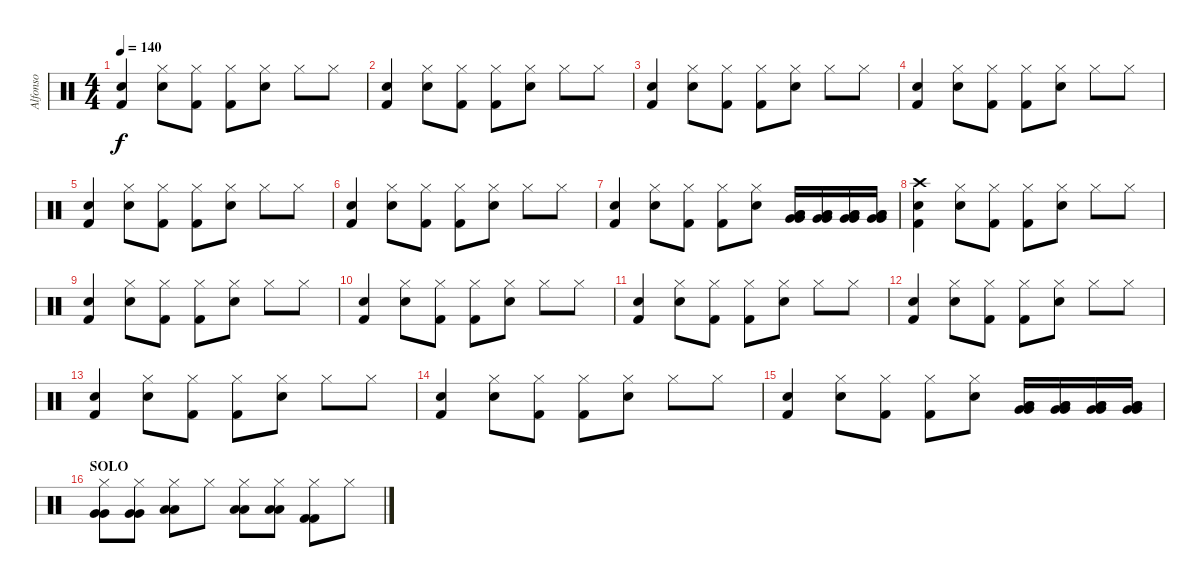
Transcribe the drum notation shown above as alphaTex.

\track ("Alfonso" "Alfonso") {instrument percussion}
\staff {score}
\articulation defaults
\ts (4 4)
\tempo 140
\clef neutral
\ks c
("Kick (hit) 2" "Electric Snare (hit)").4{dy f} ("Hi-Hat (closed)" "Electric Snare (hit)").8 ("Hi-Hat (closed)" "Kick (hit) 2").8 ("Hi-Hat (closed)" "Kick (hit) 2").8 ("Hi-Hat (closed)" "Electric Snare (hit)").8 "Hi-Hat (closed)".8 "Hi-Hat (closed)".8 |
("Kick (hit) 2" "Electric Snare (hit)").4 ("Hi-Hat (closed)" "Electric Snare (hit)").8 ("Hi-Hat (closed)" "Kick (hit) 2").8 ("Hi-Hat (closed)" "Kick (hit) 2").8 ("Hi-Hat (closed)" "Electric Snare (hit)").8 "Hi-Hat (closed)".8 "Hi-Hat (closed)".8 |
("Kick (hit) 2" "Electric Snare (hit)").4 ("Hi-Hat (closed)" "Electric Snare (hit)").8 ("Hi-Hat (closed)" "Kick (hit) 2").8 ("Hi-Hat (closed)" "Kick (hit) 2").8 ("Hi-Hat (closed)" "Electric Snare (hit)").8 "Hi-Hat (closed)".8 "Hi-Hat (closed)".8 |
("Kick (hit) 2" "Electric Snare (hit)").4 ("Hi-Hat (closed)" "Electric Snare (hit)").8 ("Hi-Hat (closed)" "Kick (hit) 2").8 ("Hi-Hat (closed)" "Kick (hit) 2").8 ("Hi-Hat (closed)" "Electric Snare (hit)").8 "Hi-Hat (closed)".8 "Hi-Hat (closed)".8 |
("Kick (hit) 2" "Electric Snare (hit)").4 ("Hi-Hat (closed)" "Electric Snare (hit)").8 ("Hi-Hat (closed)" "Kick (hit) 2").8 ("Hi-Hat (closed)" "Kick (hit) 2").8 ("Hi-Hat (closed)" "Electric Snare (hit)").8 "Hi-Hat (closed)".8 "Hi-Hat (closed)".8 |
("Kick (hit) 2" "Electric Snare (hit)").4 ("Hi-Hat (closed)" "Electric Snare (hit)").8 ("Hi-Hat (closed)" "Kick (hit) 2").8 ("Hi-Hat (closed)" "Kick (hit) 2").8 ("Hi-Hat (closed)" "Electric Snare (hit)").8 "Hi-Hat (closed)".8 "Hi-Hat (closed)".8 |
("Kick (hit) 2" "Electric Snare (hit)").4 ("Hi-Hat (closed)" "Electric Snare (hit)").8 ("Hi-Hat (closed)" "Kick (hit) 2").8 ("Hi-Hat (closed)" "Kick (hit) 2").8 ("Hi-Hat (closed)" "Electric Snare (hit)").8 ("Low Floor Tom (hit)" "Very Low Tom (hit)" "Very Low Tom (hit)" "Low Floor Tom (hit)").16 ("Low Floor Tom (hit)" "Very Low Tom (hit)" "Very Low Tom (hit)" "Low Floor Tom (hit)").16 ("Low Floor Tom (hit)" "Very Low Tom (hit)" "Very Low Tom (hit)" "Low Floor Tom (hit)").16 ("Low Floor Tom (hit)" "Very Low Tom (hit)" "Very Low Tom (hit)" "Low Floor Tom (hit)").16 |
("Kick (hit) 2" "Crash high (hit)" "Electric Snare (hit)").4 ("Hi-Hat (closed)" "Electric Snare (hit)").8 ("Hi-Hat (closed)" "Kick (hit) 2").8 ("Hi-Hat (closed)" "Kick (hit) 2").8 ("Hi-Hat (closed)" "Electric Snare (hit)").8 "Hi-Hat (closed)".8 "Hi-Hat (closed)".8 |
("Kick (hit) 2" "Electric Snare (hit)").4 ("Hi-Hat (closed)" "Electric Snare (hit)").8 ("Hi-Hat (closed)" "Kick (hit) 2").8 ("Hi-Hat (closed)" "Kick (hit) 2").8 ("Hi-Hat (closed)" "Electric Snare (hit)").8 "Hi-Hat (closed)".8 "Hi-Hat (closed)".8 |
("Kick (hit) 2" "Electric Snare (hit)").4 ("Hi-Hat (closed)" "Electric Snare (hit)").8 ("Hi-Hat (closed)" "Kick (hit) 2").8 ("Hi-Hat (closed)" "Kick (hit) 2").8 ("Hi-Hat (closed)" "Electric Snare (hit)").8 "Hi-Hat (closed)".8 "Hi-Hat (closed)".8 |
("Kick (hit) 2" "Electric Snare (hit)").4 ("Hi-Hat (closed)" "Electric Snare (hit)").8 ("Hi-Hat (closed)" "Kick (hit) 2").8 ("Hi-Hat (closed)" "Kick (hit) 2").8 ("Hi-Hat (closed)" "Electric Snare (hit)").8 "Hi-Hat (closed)".8 "Hi-Hat (closed)".8 |
("Kick (hit) 2" "Electric Snare (hit)").4 ("Hi-Hat (closed)" "Electric Snare (hit)").8 ("Hi-Hat (closed)" "Kick (hit) 2").8 ("Hi-Hat (closed)" "Kick (hit) 2").8 ("Hi-Hat (closed)" "Electric Snare (hit)").8 "Hi-Hat (closed)".8 "Hi-Hat (closed)".8 |
("Kick (hit) 2" "Electric Snare (hit)").4 ("Hi-Hat (closed)" "Electric Snare (hit)").8 ("Hi-Hat (closed)" "Kick (hit) 2").8 ("Hi-Hat (closed)" "Kick (hit) 2").8 ("Hi-Hat (closed)" "Electric Snare (hit)").8 "Hi-Hat (closed)".8 "Hi-Hat (closed)".8 |
("Kick (hit) 2" "Electric Snare (hit)").4 ("Hi-Hat (closed)" "Electric Snare (hit)").8 ("Hi-Hat (closed)" "Kick (hit) 2").8 ("Hi-Hat (closed)" "Kick (hit) 2").8 ("Hi-Hat (closed)" "Electric Snare (hit)").8 "Hi-Hat (closed)".8 "Hi-Hat (closed)".8 |
("Kick (hit) 2" "Electric Snare (hit)").4 ("Hi-Hat (closed)" "Electric Snare (hit)").8 ("Hi-Hat (closed)" "Kick (hit) 2").8 ("Hi-Hat (closed)" "Kick (hit) 2").8 ("Hi-Hat (closed)" "Electric Snare (hit)").8 ("Low Floor Tom (hit)" "Very Low Tom (hit)" "Very Low Tom (hit)" "Low Floor Tom (hit)").16 ("Low Floor Tom (hit)" "Very Low Tom (hit)" "Very Low Tom (hit)" "Low Floor Tom (hit)").16 ("Low Floor Tom (hit)" "Very Low Tom (hit)" "Very Low Tom (hit)" "Low Floor Tom (hit)").16 ("Low Floor Tom (hit)" "Very Low Tom (hit)" "Very Low Tom (hit)" "Low Floor Tom (hit)").16 |
\section ("" "SOLO")
("Hi-Hat (closed)" "Very Low Tom (hit)" "Very Low Tom (hit)").8 ("Hi-Hat (closed)" "Very Low Tom (hit)" "Very Low Tom (hit)").8 ("Hi-Hat (closed)" "Low Floor Tom (hit)" "Low Floor Tom (hit)").8 "Hi-Hat (closed)".8 ("Hi-Hat (closed)" "Low Floor Tom (hit)" "Low Floor Tom (hit)").8 ("Hi-Hat (closed)" "Low Floor Tom (hit)" "Low Floor Tom (hit)").8 ("Hi-Hat (closed)" "Kick (hit) 2" "Kick (hit) 2").8 "Hi-Hat (closed)".8
